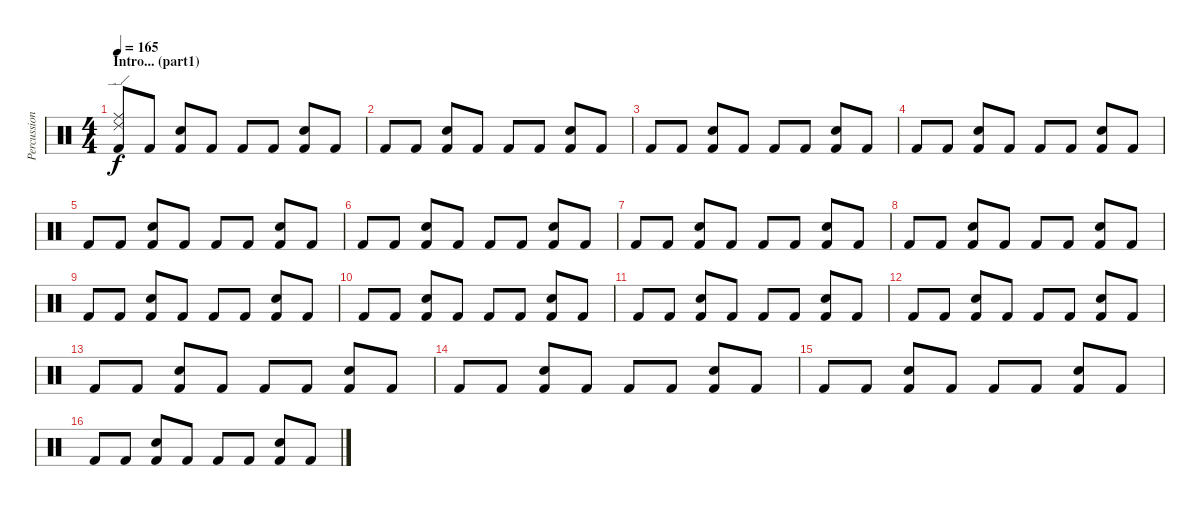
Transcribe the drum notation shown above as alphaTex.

\track ("Percussion" "Percussion") {instrument percussion}
\staff {score}
\articulation defaults
\ts (4 4)
\section ("" "Intro... (part1)")
\tempo 165
\clef neutral
\ks c
("Ride (edge) 2" "Ride (middle)" "Kick (hit) 2").8{dy f} "Kick (hit) 2".8 ("Electric Snare (hit)" "Kick (hit) 2").8 "Kick (hit) 2".8 "Kick (hit) 2".8 "Kick (hit) 2".8 ("Electric Snare (hit)" "Kick (hit) 2").8 "Kick (hit) 2".8 |
"Kick (hit) 2".8 "Kick (hit) 2".8 ("Electric Snare (hit)" "Kick (hit) 2").8 "Kick (hit) 2".8 "Kick (hit) 2".8 "Kick (hit) 2".8 ("Electric Snare (hit)" "Kick (hit) 2").8 "Kick (hit) 2".8 |
"Kick (hit) 2".8 "Kick (hit) 2".8 ("Electric Snare (hit)" "Kick (hit) 2").8 "Kick (hit) 2".8 "Kick (hit) 2".8 "Kick (hit) 2".8 ("Electric Snare (hit)" "Kick (hit) 2").8 "Kick (hit) 2".8 |
"Kick (hit) 2".8 "Kick (hit) 2".8 ("Electric Snare (hit)" "Kick (hit) 2").8 "Kick (hit) 2".8 "Kick (hit) 2".8 "Kick (hit) 2".8 ("Electric Snare (hit)" "Kick (hit) 2").8 "Kick (hit) 2".8 |
"Kick (hit) 2".8 "Kick (hit) 2".8 ("Electric Snare (hit)" "Kick (hit) 2").8 "Kick (hit) 2".8 "Kick (hit) 2".8 "Kick (hit) 2".8 ("Electric Snare (hit)" "Kick (hit) 2").8 "Kick (hit) 2".8 |
"Kick (hit) 2".8 "Kick (hit) 2".8 ("Electric Snare (hit)" "Kick (hit) 2").8 "Kick (hit) 2".8 "Kick (hit) 2".8 "Kick (hit) 2".8 ("Electric Snare (hit)" "Kick (hit) 2").8 "Kick (hit) 2".8 |
"Kick (hit) 2".8 "Kick (hit) 2".8 ("Electric Snare (hit)" "Kick (hit) 2").8 "Kick (hit) 2".8 "Kick (hit) 2".8 "Kick (hit) 2".8 ("Electric Snare (hit)" "Kick (hit) 2").8 "Kick (hit) 2".8 |
"Kick (hit) 2".8 "Kick (hit) 2".8 ("Electric Snare (hit)" "Kick (hit) 2").8 "Kick (hit) 2".8 "Kick (hit) 2".8 "Kick (hit) 2".8 ("Electric Snare (hit)" "Kick (hit) 2").8 "Kick (hit) 2".8 |
"Kick (hit) 2".8 "Kick (hit) 2".8 ("Electric Snare (hit)" "Kick (hit) 2").8 "Kick (hit) 2".8 "Kick (hit) 2".8 "Kick (hit) 2".8 ("Electric Snare (hit)" "Kick (hit) 2").8 "Kick (hit) 2".8 |
"Kick (hit) 2".8 "Kick (hit) 2".8 ("Electric Snare (hit)" "Kick (hit) 2").8 "Kick (hit) 2".8 "Kick (hit) 2".8 "Kick (hit) 2".8 ("Electric Snare (hit)" "Kick (hit) 2").8 "Kick (hit) 2".8 |
"Kick (hit) 2".8 "Kick (hit) 2".8 ("Electric Snare (hit)" "Kick (hit) 2").8 "Kick (hit) 2".8 "Kick (hit) 2".8 "Kick (hit) 2".8 ("Electric Snare (hit)" "Kick (hit) 2").8 "Kick (hit) 2".8 |
"Kick (hit) 2".8 "Kick (hit) 2".8 ("Electric Snare (hit)" "Kick (hit) 2").8 "Kick (hit) 2".8 "Kick (hit) 2".8 "Kick (hit) 2".8 ("Electric Snare (hit)" "Kick (hit) 2").8 "Kick (hit) 2".8 |
"Kick (hit) 2".8 "Kick (hit) 2".8 ("Electric Snare (hit)" "Kick (hit) 2").8 "Kick (hit) 2".8 "Kick (hit) 2".8 "Kick (hit) 2".8 ("Electric Snare (hit)" "Kick (hit) 2").8 "Kick (hit) 2".8 |
"Kick (hit) 2".8 "Kick (hit) 2".8 ("Electric Snare (hit)" "Kick (hit) 2").8 "Kick (hit) 2".8 "Kick (hit) 2".8 "Kick (hit) 2".8 ("Electric Snare (hit)" "Kick (hit) 2").8 "Kick (hit) 2".8 |
"Kick (hit) 2".8 "Kick (hit) 2".8 ("Electric Snare (hit)" "Kick (hit) 2").8 "Kick (hit) 2".8 "Kick (hit) 2".8 "Kick (hit) 2".8 ("Electric Snare (hit)" "Kick (hit) 2").8 "Kick (hit) 2".8 |
"Kick (hit) 2".8 "Kick (hit) 2".8 ("Electric Snare (hit)" "Kick (hit) 2").8 "Kick (hit) 2".8 "Kick (hit) 2".8 "Kick (hit) 2".8 ("Electric Snare (hit)" "Kick (hit) 2").8 "Kick (hit) 2".8
